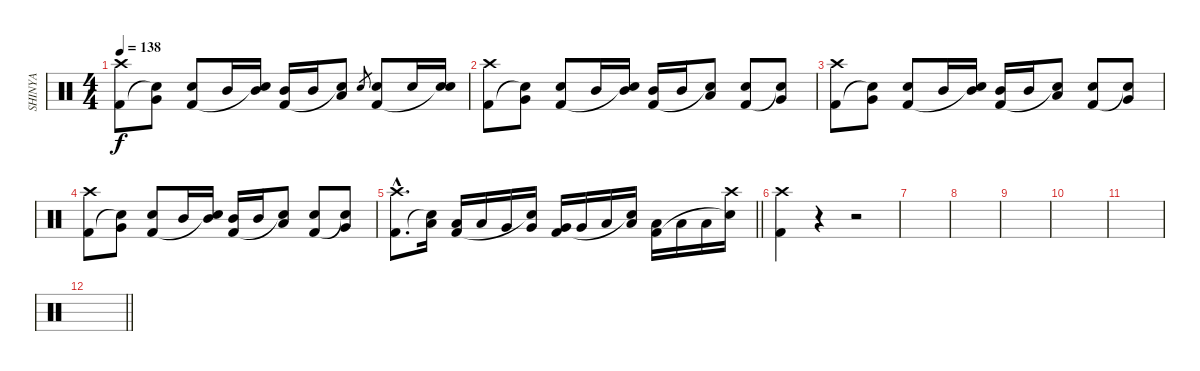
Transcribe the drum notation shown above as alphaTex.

\track ("SHINYA" "SHINYA") {instrument percussion}
\staff {score}
\articulation defaults
\ts (4 4)
\tempo 138
\clef neutral
\ks c
("Crash high (hit)" "Kick (hit) 2").8{dy f} ("Very Low Tom (hit)" "Snare (hit)"{t}).8 ("Electric Snare (hit)" "Kick (hit) 2").8 "Mid Tom (hit)".16 ("Mid Tom (hit)" "Snare (hit)"{t}).16 ("Mid Tom (hit)" "Kick (hit) 2").16 "Mid Tom (hit)".16 ("Low Tom (hit)" "Snare (hit)"{t}).8 "Electric Snare (hit)".8{gr} ("Electric Snare (hit)" "Kick (hit) 2").8 "Electric Snare (hit)".16 ("Electric Snare (hit)" "Snare (hit)"{t}).16 |
("Crash high (hit)" "Kick (hit) 2").8 ("Very Low Tom (hit)" "Snare (hit)"{t}).8 ("Electric Snare (hit)" "Kick (hit) 2").8 "Mid Tom (hit)".16 ("Mid Tom (hit)" "Snare (hit)"{t}).16 ("Mid Tom (hit)" "Kick (hit) 2").16 "Mid Tom (hit)".16 ("Low Tom (hit)" "Snare (hit)"{t}).8 ("Electric Snare (hit)" "Kick (hit) 2").8 ("Very Low Tom (hit)" "Snare (hit)"{t}).8 |
("Crash high (hit)" "Kick (hit) 2").8 ("Very Low Tom (hit)" "Snare (hit)"{t}).8 ("Electric Snare (hit)" "Kick (hit) 2").8 "Mid Tom (hit)".16 ("Mid Tom (hit)" "Snare (hit)"{t}).16 ("Mid Tom (hit)" "Kick (hit) 2").16 "Mid Tom (hit)".16 ("Low Tom (hit)" "Snare (hit)"{t}).8 ("Electric Snare (hit)" "Kick (hit) 2").8 ("Very Low Tom (hit)" "Snare (hit)"{t}).8 |
("Crash high (hit)" "Kick (hit) 2").8 ("Very Low Tom (hit)" "Snare (hit)"{t}).8 ("Electric Snare (hit)" "Kick (hit) 2").8 "Mid Tom (hit)".16 ("Mid Tom (hit)" "Snare (hit)"{t}).16 ("Mid Tom (hit)" "Kick (hit) 2").16 "Mid Tom (hit)".16 ("Low Tom (hit)" "Snare (hit)"{t}).8 ("Electric Snare (hit)" "Kick (hit) 2").8 ("Very Low Tom (hit)" "Snare (hit)"{t}).8 |
\barLineRight lightlight
("Crash high (hit)"{hac} "Kick (hit) 2"{hac}).8{d} ("Low Floor Tom (hit)" "Snare (hit)"{t}).16 ("Low Floor Tom (hit)" "Kick (hit) 2").16 "Low Floor Tom (hit)".16 "Very Low Tom (hit)".16 ("Very Low Tom (hit)" "Snare (hit)"{t}).16 ("Very Low Tom (hit)" "Kick (hit) 2").16 "Very Low Tom (hit)".16 "Low Tom (hit)".16 ("Low Tom (hit)" "Snare (hit)"{t}).16 ("Low Tom (hit)" "Kick (hit) 2").16 "Low Tom (hit)".16 "Low Tom (hit)".16 ("Crash high (hit)" "Snare (hit)"{t}).16 |
("Crash high (hit)" "Kick (hit) 2").4 r.4 r.2 |
|
|
|
|
|
\barLineRight lightlight
